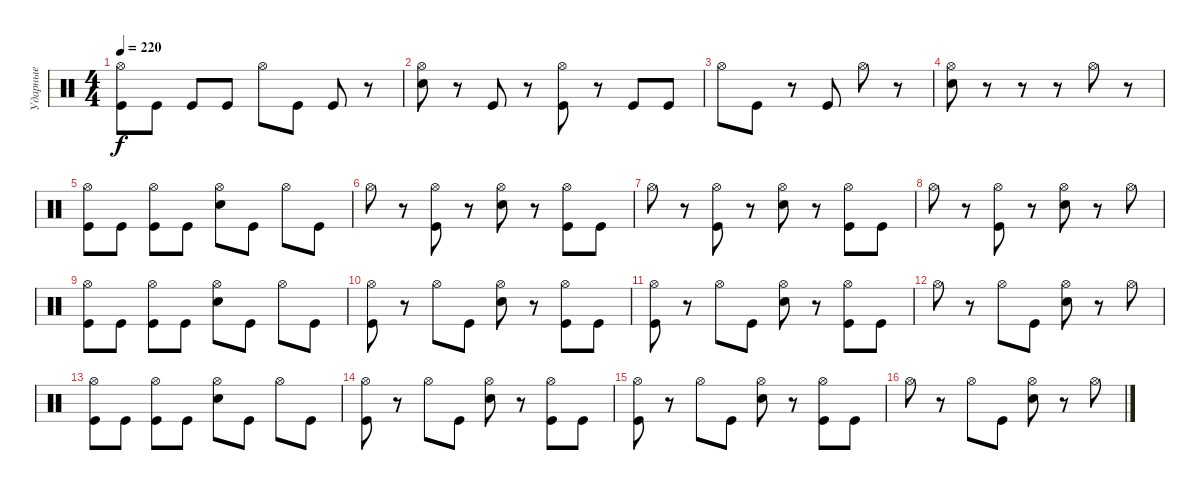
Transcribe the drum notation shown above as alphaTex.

\track ("Ударные" "Ударные") {instrument percussion}
\staff {score}
\articulation defaults
\ts (4 4)
\tempo 220
\clef neutral
\ks c
("Hi-Hat (open)" "Kick (hit)").8{dy f} "Kick (hit)".8 "Kick (hit)".8 "Kick (hit)".8 "Hi-Hat (open)".8 "Kick (hit)".8 "Kick (hit)".8 r.8 |
("Hi-Hat (open)" "Electric Snare (hit)").8 r.8 "Kick (hit)".8 r.8 ("Hi-Hat (open)" "Kick (hit)").8 r.8 "Kick (hit)".8 "Kick (hit)".8 |
"Hi-Hat (open)".8 "Kick (hit)".8 r.8 "Kick (hit)".8 "Hi-Hat (open)".8 r.8 |
("Hi-Hat (open)" "Electric Snare (hit)").8 r.8 r.8 r.8 "Hi-Hat (open)".8 r.8 |
("Hi-Hat (open)" "Kick (hit)").8 "Kick (hit)".8 ("Hi-Hat (open)" "Kick (hit)").8 "Kick (hit)".8 ("Hi-Hat (open)" "Electric Snare (hit)").8 "Kick (hit)".8 "Hi-Hat (open)".8 "Kick (hit)".8 |
"Hi-Hat (open)".8 r.8 ("Hi-Hat (open)" "Kick (hit)").8 r.8 ("Hi-Hat (open)" "Electric Snare (hit)").8 r.8 ("Hi-Hat (open)" "Kick (hit)").8 "Kick (hit)".8 |
"Hi-Hat (open)".8 r.8 ("Hi-Hat (open)" "Kick (hit)").8 r.8 ("Hi-Hat (open)" "Electric Snare (hit)").8 r.8 ("Hi-Hat (open)" "Kick (hit)").8 "Kick (hit)".8 |
"Hi-Hat (open)".8 r.8 ("Hi-Hat (open)" "Kick (hit)").8 r.8 ("Hi-Hat (open)" "Electric Snare (hit)").8 r.8 "Hi-Hat (open)".8 |
("Hi-Hat (open)" "Kick (hit)").8 "Kick (hit)".8 ("Hi-Hat (open)" "Kick (hit)").8 "Kick (hit)".8 ("Hi-Hat (open)" "Electric Snare (hit)").8 "Kick (hit)".8 "Hi-Hat (open)".8 "Kick (hit)".8 |
("Hi-Hat (open)" "Kick (hit)").8 r.8 "Hi-Hat (open)".8 "Kick (hit)".8 ("Hi-Hat (open)" "Electric Snare (hit)").8 r.8 ("Hi-Hat (open)" "Kick (hit)").8 "Kick (hit)".8 |
("Hi-Hat (open)" "Kick (hit)").8 r.8 "Hi-Hat (open)".8 "Kick (hit)".8 ("Hi-Hat (open)" "Electric Snare (hit)").8 r.8 ("Hi-Hat (open)" "Kick (hit)").8 "Kick (hit)".8 |
"Hi-Hat (open)".8 r.8 "Hi-Hat (open)".8 "Kick (hit)".8 ("Hi-Hat (open)" "Electric Snare (hit)").8 r.8 "Hi-Hat (open)".8 |
("Hi-Hat (open)" "Kick (hit)").8 "Kick (hit)".8 ("Hi-Hat (open)" "Kick (hit)").8 "Kick (hit)".8 ("Hi-Hat (open)" "Electric Snare (hit)").8 "Kick (hit)".8 "Hi-Hat (open)".8 "Kick (hit)".8 |
("Hi-Hat (open)" "Kick (hit)").8 r.8 "Hi-Hat (open)".8 "Kick (hit)".8 ("Hi-Hat (open)" "Electric Snare (hit)").8 r.8 ("Hi-Hat (open)" "Kick (hit)").8 "Kick (hit)".8 |
("Hi-Hat (open)" "Kick (hit)").8 r.8 "Hi-Hat (open)".8 "Kick (hit)".8 ("Hi-Hat (open)" "Electric Snare (hit)").8 r.8 ("Hi-Hat (open)" "Kick (hit)").8 "Kick (hit)".8 |
"Hi-Hat (open)".8 r.8 "Hi-Hat (open)".8 "Kick (hit)".8 ("Hi-Hat (open)" "Electric Snare (hit)").8 r.8 "Hi-Hat (open)".8
